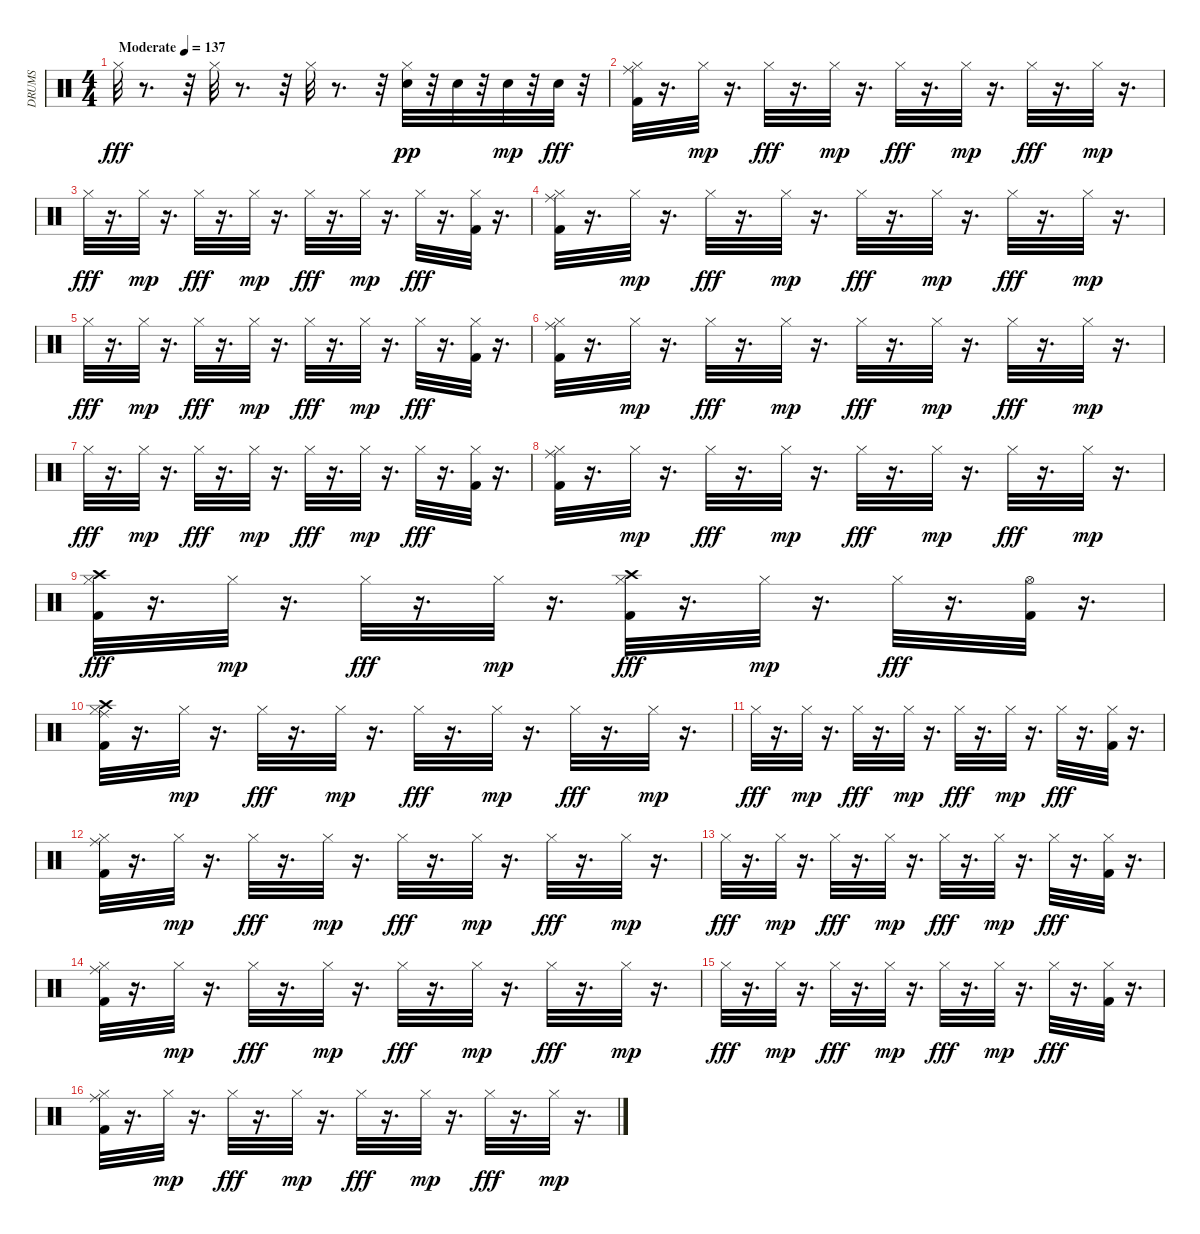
\track ("DRUMS" "DRUMS") {instrument percussion}
\staff {score}
\articulation defaults
\ts (4 4)
\tempo (137 "Moderate")
\clef neutral
\ks c "Hi-Hat (closed)".32{dy fff}
r.8{d} r.32 "Hi-Hat (closed)".32 r.8{d} r.32 "Hi-Hat (closed)".32 r.8{d} r.32 ("Hi-Hat (closed)" "Snare (hit) 2").32{dy pp} r.32 "Snare (hit) 2".32 r.32 "Snare (hit) 2".32{dy mp} r.32 "Snare (hit) 2".32{dy fff} r.32 |
("Ride (middle)" "Hi-Hat (closed)" "Kick (hit) 2").32 r.16{d} "Hi-Hat (closed)".32{dy mp} r.16{d} "Hi-Hat (closed)".32{dy fff} r.16{d} "Hi-Hat (closed)".32{dy mp} r.16{d} "Hi-Hat (closed)".32{dy fff} r.16{d} "Hi-Hat (closed)".32{dy mp} r.16{d} "Hi-Hat (closed)".32{dy fff} r.16{d} "Hi-Hat (closed)".32{dy mp} r.16{d} |
"Hi-Hat (closed)".32{dy fff} r.16{d} "Hi-Hat (closed)".32{dy mp} r.16{d} "Hi-Hat (closed)".32{dy fff} r.16{d} "Hi-Hat (closed)".32{dy mp} r.16{d} "Hi-Hat (closed)".32{dy fff} r.16{d} "Hi-Hat (closed)".32{dy mp} r.16{d} "Hi-Hat (closed)".32{dy fff} r.16{d} ("Hi-Hat (closed)" "Kick (hit) 2").32 r.16{d} |
("Ride (middle)" "Hi-Hat (closed)" "Kick (hit) 2").32 r.16{d} "Hi-Hat (closed)".32{dy mp} r.16{d} "Hi-Hat (closed)".32{dy fff} r.16{d} "Hi-Hat (closed)".32{dy mp} r.16{d} "Hi-Hat (closed)".32{dy fff} r.16{d} "Hi-Hat (closed)".32{dy mp} r.16{d} "Hi-Hat (closed)".32{dy fff} r.16{d} "Hi-Hat (closed)".32{dy mp} r.16{d} |
"Hi-Hat (closed)".32{dy fff} r.16{d} "Hi-Hat (closed)".32{dy mp} r.16{d} "Hi-Hat (closed)".32{dy fff} r.16{d} "Hi-Hat (closed)".32{dy mp} r.16{d} "Hi-Hat (closed)".32{dy fff} r.16{d} "Hi-Hat (closed)".32{dy mp} r.16{d} "Hi-Hat (closed)".32{dy fff} r.16{d} ("Hi-Hat (closed)" "Kick (hit) 2").32 r.16{d} |
("Ride (middle)" "Hi-Hat (closed)" "Kick (hit) 2").32 r.16{d} "Hi-Hat (closed)".32{dy mp} r.16{d} "Hi-Hat (closed)".32{dy fff} r.16{d} "Hi-Hat (closed)".32{dy mp} r.16{d} "Hi-Hat (closed)".32{dy fff} r.16{d} "Hi-Hat (closed)".32{dy mp} r.16{d} "Hi-Hat (closed)".32{dy fff} r.16{d} "Hi-Hat (closed)".32{dy mp} r.16{d} |
"Hi-Hat (closed)".32{dy fff} r.16{d} "Hi-Hat (closed)".32{dy mp} r.16{d} "Hi-Hat (closed)".32{dy fff} r.16{d} "Hi-Hat (closed)".32{dy mp} r.16{d} "Hi-Hat (closed)".32{dy fff} r.16{d} "Hi-Hat (closed)".32{dy mp} r.16{d} "Hi-Hat (closed)".32{dy fff} r.16{d} ("Hi-Hat (closed)" "Kick (hit) 2").32 r.16{d} |
("Ride (middle)" "Hi-Hat (closed)" "Kick (hit) 2").32 r.16{d} "Hi-Hat (closed)".32{dy mp} r.16{d} "Hi-Hat (closed)".32{dy fff} r.16{d} "Hi-Hat (closed)".32{dy mp} r.16{d} "Hi-Hat (closed)".32{dy fff} r.16{d} "Hi-Hat (closed)".32{dy mp} r.16{d} "Hi-Hat (closed)".32{dy fff} r.16{d} "Hi-Hat (closed)".32{dy mp} r.16{d} |
("Crash high (hit)" "Hi-Hat (closed)" "Kick (hit) 2").32{dy fff} r.16{d} "Hi-Hat (closed)".32{dy mp} r.16{d} "Hi-Hat (closed)".32{dy fff} r.16{d} "Hi-Hat (closed)".32{dy mp} r.16{d} ("Crash high (hit)" "Hi-Hat (closed)" "Kick (hit) 2").32{dy fff} r.16{d} "Hi-Hat (closed)".32{dy mp} r.16{d} "Hi-Hat (closed)".32{dy fff} r.16{d} ("Hi-Hat (open)" "Kick (hit) 2").32 r.16{d} |
("Crash high (hit)" "Ride (middle)" "Hi-Hat (closed)" "Kick (hit) 2").32 r.16{d} "Hi-Hat (closed)".32{dy mp} r.16{d} "Hi-Hat (closed)".32{dy fff} r.16{d} "Hi-Hat (closed)".32{dy mp} r.16{d} "Hi-Hat (closed)".32{dy fff} r.16{d} "Hi-Hat (closed)".32{dy mp} r.16{d} "Hi-Hat (closed)".32{dy fff} r.16{d} "Hi-Hat (closed)".32{dy mp} r.16{d} |
"Hi-Hat (closed)".32{dy fff} r.16{d} "Hi-Hat (closed)".32{dy mp} r.16{d} "Hi-Hat (closed)".32{dy fff} r.16{d} "Hi-Hat (closed)".32{dy mp} r.16{d} "Hi-Hat (closed)".32{dy fff} r.16{d} "Hi-Hat (closed)".32{dy mp} r.16{d} "Hi-Hat (closed)".32{dy fff} r.16{d} ("Hi-Hat (closed)" "Kick (hit) 2").32 r.16{d} |
("Ride (middle)" "Hi-Hat (closed)" "Kick (hit) 2").32 r.16{d} "Hi-Hat (closed)".32{dy mp} r.16{d} "Hi-Hat (closed)".32{dy fff} r.16{d} "Hi-Hat (closed)".32{dy mp} r.16{d} "Hi-Hat (closed)".32{dy fff} r.16{d} "Hi-Hat (closed)".32{dy mp} r.16{d} "Hi-Hat (closed)".32{dy fff} r.16{d} "Hi-Hat (closed)".32{dy mp} r.16{d} |
"Hi-Hat (closed)".32{dy fff} r.16{d} "Hi-Hat (closed)".32{dy mp} r.16{d} "Hi-Hat (closed)".32{dy fff} r.16{d} "Hi-Hat (closed)".32{dy mp} r.16{d} "Hi-Hat (closed)".32{dy fff} r.16{d} "Hi-Hat (closed)".32{dy mp} r.16{d} "Hi-Hat (closed)".32{dy fff} r.16{d} ("Hi-Hat (closed)" "Kick (hit) 2").32 r.16{d} |
("Ride (middle)" "Hi-Hat (closed)" "Kick (hit) 2").32 r.16{d} "Hi-Hat (closed)".32{dy mp} r.16{d} "Hi-Hat (closed)".32{dy fff} r.16{d} "Hi-Hat (closed)".32{dy mp} r.16{d} "Hi-Hat (closed)".32{dy fff} r.16{d} "Hi-Hat (closed)".32{dy mp} r.16{d} "Hi-Hat (closed)".32{dy fff} r.16{d} "Hi-Hat (closed)".32{dy mp} r.16{d} |
"Hi-Hat (closed)".32{dy fff} r.16{d} "Hi-Hat (closed)".32{dy mp} r.16{d} "Hi-Hat (closed)".32{dy fff} r.16{d} "Hi-Hat (closed)".32{dy mp} r.16{d} "Hi-Hat (closed)".32{dy fff} r.16{d} "Hi-Hat (closed)".32{dy mp} r.16{d} "Hi-Hat (closed)".32{dy fff} r.16{d} ("Hi-Hat (closed)" "Kick (hit) 2").32 r.16{d} |
("Ride (middle)" "Hi-Hat (closed)" "Kick (hit) 2").32 r.16{d} "Hi-Hat (closed)".32{dy mp} r.16{d} "Hi-Hat (closed)".32{dy fff} r.16{d} "Hi-Hat (closed)".32{dy mp} r.16{d} "Hi-Hat (closed)".32{dy fff} r.16{d} "Hi-Hat (closed)".32{dy mp} r.16{d} "Hi-Hat (closed)".32{dy fff} r.16{d} "Hi-Hat (closed)".32{dy mp} r.16{d}
